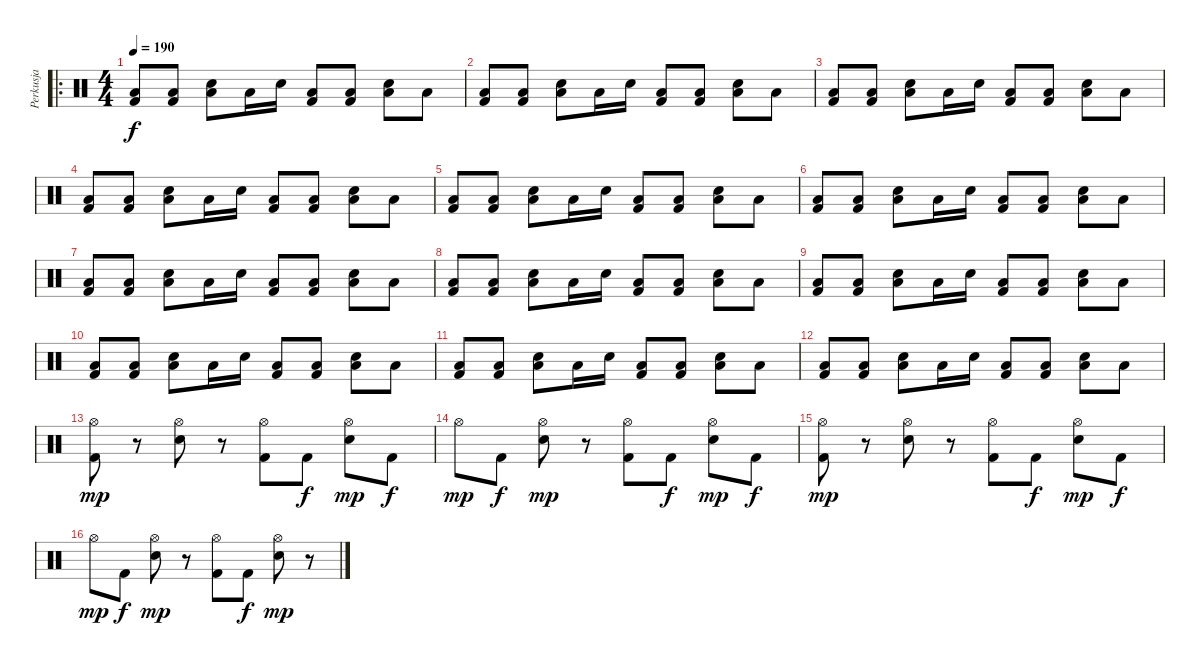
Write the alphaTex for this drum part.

\track ("Perkusja" "Perkusja") {instrument percussion}
\staff {score}
\articulation defaults
\ro
\ts (4 4)
\tempo 190
\clef neutral
\ks c
("Low Floor Tom (hit)" "Kick (hit) 2").8{dy f} ("Low Floor Tom (hit)" "Kick (hit) 2").8 ("Low Floor Tom (hit)" "Snare (hit) 2").8 "Low Floor Tom (hit)".16 "Snare (hit) 2".16 ("Low Floor Tom (hit)" "Kick (hit) 2").8 ("Low Floor Tom (hit)" "Kick (hit) 2").8 ("Low Floor Tom (hit)" "Snare (hit) 2").8 "Low Floor Tom (hit)".8 |
("Low Floor Tom (hit)" "Kick (hit) 2").8 ("Low Floor Tom (hit)" "Kick (hit) 2").8 ("Low Floor Tom (hit)" "Snare (hit) 2").8 "Low Floor Tom (hit)".16 "Snare (hit) 2".16 ("Low Floor Tom (hit)" "Kick (hit) 2").8 ("Low Floor Tom (hit)" "Kick (hit) 2").8 ("Low Floor Tom (hit)" "Snare (hit) 2").8 "Low Floor Tom (hit)".8 |
("Low Floor Tom (hit)" "Kick (hit) 2").8 ("Low Floor Tom (hit)" "Kick (hit) 2").8 ("Low Floor Tom (hit)" "Snare (hit) 2").8 "Low Floor Tom (hit)".16 "Snare (hit) 2".16 ("Low Floor Tom (hit)" "Kick (hit) 2").8 ("Low Floor Tom (hit)" "Kick (hit) 2").8 ("Low Floor Tom (hit)" "Snare (hit) 2").8 "Low Floor Tom (hit)".8 |
("Low Floor Tom (hit)" "Kick (hit) 2").8 ("Low Floor Tom (hit)" "Kick (hit) 2").8 ("Low Floor Tom (hit)" "Snare (hit) 2").8 "Low Floor Tom (hit)".16 "Snare (hit) 2".16 ("Low Floor Tom (hit)" "Kick (hit) 2").8 ("Low Floor Tom (hit)" "Kick (hit) 2").8 ("Low Floor Tom (hit)" "Snare (hit) 2").8 "Low Floor Tom (hit)".8 |
("Low Floor Tom (hit)" "Kick (hit) 2").8 ("Low Floor Tom (hit)" "Kick (hit) 2").8 ("Low Floor Tom (hit)" "Snare (hit) 2").8 "Low Floor Tom (hit)".16 "Snare (hit) 2".16 ("Low Floor Tom (hit)" "Kick (hit) 2").8 ("Low Floor Tom (hit)" "Kick (hit) 2").8 ("Low Floor Tom (hit)" "Snare (hit) 2").8 "Low Floor Tom (hit)".8 |
("Low Floor Tom (hit)" "Kick (hit) 2").8 ("Low Floor Tom (hit)" "Kick (hit) 2").8 ("Low Floor Tom (hit)" "Snare (hit) 2").8 "Low Floor Tom (hit)".16 "Snare (hit) 2".16 ("Low Floor Tom (hit)" "Kick (hit) 2").8 ("Low Floor Tom (hit)" "Kick (hit) 2").8 ("Low Floor Tom (hit)" "Snare (hit) 2").8 "Low Floor Tom (hit)".8 |
("Low Floor Tom (hit)" "Kick (hit) 2").8 ("Low Floor Tom (hit)" "Kick (hit) 2").8 ("Low Floor Tom (hit)" "Snare (hit) 2").8 "Low Floor Tom (hit)".16 "Snare (hit) 2".16 ("Low Floor Tom (hit)" "Kick (hit) 2").8 ("Low Floor Tom (hit)" "Kick (hit) 2").8 ("Low Floor Tom (hit)" "Snare (hit) 2").8 "Low Floor Tom (hit)".8 |
("Low Floor Tom (hit)" "Kick (hit) 2").8 ("Low Floor Tom (hit)" "Kick (hit) 2").8 ("Low Floor Tom (hit)" "Snare (hit) 2").8 "Low Floor Tom (hit)".16 "Snare (hit) 2".16 ("Low Floor Tom (hit)" "Kick (hit) 2").8 ("Low Floor Tom (hit)" "Kick (hit) 2").8 ("Low Floor Tom (hit)" "Snare (hit) 2").8 "Low Floor Tom (hit)".8 |
("Low Floor Tom (hit)" "Kick (hit) 2").8 ("Low Floor Tom (hit)" "Kick (hit) 2").8 ("Low Floor Tom (hit)" "Snare (hit) 2").8 "Low Floor Tom (hit)".16 "Snare (hit) 2".16 ("Low Floor Tom (hit)" "Kick (hit) 2").8 ("Low Floor Tom (hit)" "Kick (hit) 2").8 ("Low Floor Tom (hit)" "Snare (hit) 2").8 "Low Floor Tom (hit)".8 |
("Low Floor Tom (hit)" "Kick (hit) 2").8 ("Low Floor Tom (hit)" "Kick (hit) 2").8 ("Low Floor Tom (hit)" "Snare (hit) 2").8 "Low Floor Tom (hit)".16 "Snare (hit) 2".16 ("Low Floor Tom (hit)" "Kick (hit) 2").8 ("Low Floor Tom (hit)" "Kick (hit) 2").8 ("Low Floor Tom (hit)" "Snare (hit) 2").8 "Low Floor Tom (hit)".8 |
("Low Floor Tom (hit)" "Kick (hit) 2").8 ("Low Floor Tom (hit)" "Kick (hit) 2").8 ("Low Floor Tom (hit)" "Snare (hit) 2").8 "Low Floor Tom (hit)".16 "Snare (hit) 2".16 ("Low Floor Tom (hit)" "Kick (hit) 2").8 ("Low Floor Tom (hit)" "Kick (hit) 2").8 ("Low Floor Tom (hit)" "Snare (hit) 2").8 "Low Floor Tom (hit)".8 |
("Low Floor Tom (hit)" "Kick (hit) 2").8 ("Low Floor Tom (hit)" "Kick (hit) 2").8 ("Low Floor Tom (hit)" "Snare (hit) 2").8 "Low Floor Tom (hit)".16 "Snare (hit) 2".16 ("Low Floor Tom (hit)" "Kick (hit) 2").8 ("Low Floor Tom (hit)" "Kick (hit) 2").8 ("Low Floor Tom (hit)" "Snare (hit) 2").8 "Low Floor Tom (hit)".8 |
("Hi-Hat (open)" "Kick (hit) 2").8{dy mp} r.8 ("Hi-Hat (open)" "Snare (hit) 2").8 r.8 ("Hi-Hat (open)" "Kick (hit) 2").8 "Kick (hit) 2".8{dy f} ("Hi-Hat (open)" "Snare (hit) 2").8{dy mp} "Kick (hit) 2".8{dy f} |
"Hi-Hat (open)".8{dy mp} "Kick (hit) 2".8{dy f} ("Hi-Hat (open)" "Snare (hit) 2").8{dy mp} r.8 ("Hi-Hat (open)" "Kick (hit) 2").8 "Kick (hit) 2".8{dy f} ("Hi-Hat (open)" "Snare (hit) 2").8{dy mp} "Kick (hit) 2".8{dy f} |
("Hi-Hat (open)" "Kick (hit) 2").8{dy mp} r.8 ("Hi-Hat (open)" "Snare (hit) 2").8 r.8 ("Hi-Hat (open)" "Kick (hit) 2").8 "Kick (hit) 2".8{dy f} ("Hi-Hat (open)" "Snare (hit) 2").8{dy mp} "Kick (hit) 2".8{dy f} |
"Hi-Hat (open)".8{dy mp} "Kick (hit) 2".8{dy f} ("Hi-Hat (open)" "Snare (hit) 2").8{dy mp} r.8 ("Hi-Hat (open)" "Kick (hit) 2").8 "Kick (hit) 2".8{dy f} ("Hi-Hat (open)" "Snare (hit) 2").8{dy mp} r.8
